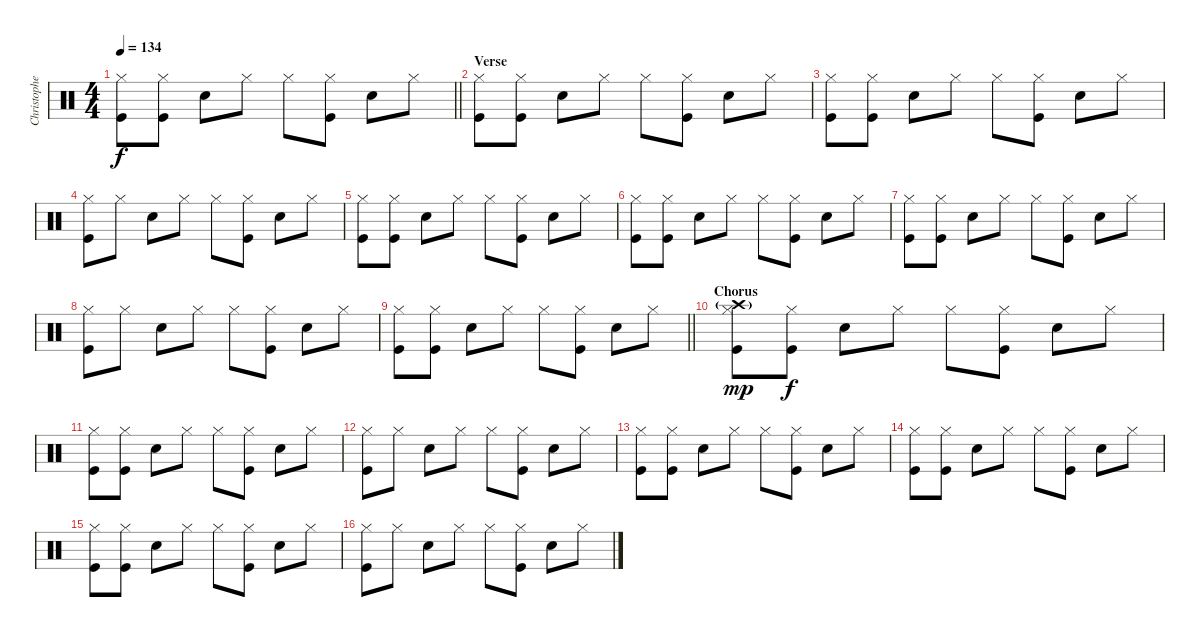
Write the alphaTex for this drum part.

\track ("Christopher - Drums" "Christophe") {instrument percussion}
\staff {score}
\articulation defaults
\ts (4 4)
\tempo 134
\clef neutral
\barLineRight lightlight
\ks c
("Hi-Hat (closed)" "Kick (hit)").8{dy f} ("Hi-Hat (closed)" "Kick (hit)").8 "Snare (hit) 2".8 "Hi-Hat (closed)".8 "Hi-Hat (closed)".8 ("Hi-Hat (closed)" "Kick (hit)").8 "Snare (hit) 2".8 "Hi-Hat (closed)".8 |
\section ("" "Verse")
("Hi-Hat (closed)" "Kick (hit)").8 ("Hi-Hat (closed)" "Kick (hit)").8 "Snare (hit) 2".8 "Hi-Hat (closed)".8 "Hi-Hat (closed)".8 ("Hi-Hat (closed)" "Kick (hit)").8 "Snare (hit) 2".8 "Hi-Hat (closed)".8 |
("Hi-Hat (closed)" "Kick (hit)").8 ("Hi-Hat (closed)" "Kick (hit)").8 "Snare (hit) 2".8 "Hi-Hat (closed)".8 "Hi-Hat (closed)".8 ("Hi-Hat (closed)" "Kick (hit)").8 "Snare (hit) 2".8 "Hi-Hat (closed)".8 |
("Hi-Hat (closed)" "Kick (hit)").8 "Hi-Hat (closed)".8 "Snare (hit) 2".8 "Hi-Hat (closed)".8 "Hi-Hat (closed)".8 ("Hi-Hat (closed)" "Kick (hit)").8 "Snare (hit) 2".8 "Hi-Hat (closed)".8 |
("Hi-Hat (closed)" "Kick (hit)").8 ("Hi-Hat (closed)" "Kick (hit)").8 "Snare (hit) 2".8 "Hi-Hat (closed)".8 "Hi-Hat (closed)".8 ("Hi-Hat (closed)" "Kick (hit)").8 "Snare (hit) 2".8 "Hi-Hat (closed)".8 |
("Hi-Hat (closed)" "Kick (hit)").8 ("Hi-Hat (closed)" "Kick (hit)").8 "Snare (hit) 2".8 "Hi-Hat (closed)".8 "Hi-Hat (closed)".8 ("Hi-Hat (closed)" "Kick (hit)").8 "Snare (hit) 2".8 "Hi-Hat (closed)".8 |
("Hi-Hat (closed)" "Kick (hit)").8 ("Hi-Hat (closed)" "Kick (hit)").8 "Snare (hit) 2".8 "Hi-Hat (closed)".8 "Hi-Hat (closed)".8 ("Hi-Hat (closed)" "Kick (hit)").8 "Snare (hit) 2".8 "Hi-Hat (closed)".8 |
("Hi-Hat (closed)" "Kick (hit)").8 "Hi-Hat (closed)".8 "Snare (hit) 2".8 "Hi-Hat (closed)".8 "Hi-Hat (closed)".8 ("Hi-Hat (closed)" "Kick (hit)").8 "Snare (hit) 2".8 "Hi-Hat (closed)".8 |
\barLineRight lightlight
("Hi-Hat (closed)" "Kick (hit)").8 ("Hi-Hat (closed)" "Kick (hit)").8 "Snare (hit) 2".8 "Hi-Hat (closed)".8 "Hi-Hat (closed)".8 ("Hi-Hat (closed)" "Kick (hit)").8 "Snare (hit) 2".8 "Hi-Hat (closed)".8 |
\section ("" "Chorus")
("Crash high (hit)"{g} "Hi-Hat (closed)" "Kick (hit)").8{dy mp} ("Hi-Hat (closed)" "Kick (hit)").8{dy f} "Snare (hit) 2".8 "Hi-Hat (closed)".8 "Hi-Hat (closed)".8 ("Hi-Hat (closed)" "Kick (hit)").8 "Snare (hit) 2".8 "Hi-Hat (closed)".8 |
("Hi-Hat (closed)" "Kick (hit)").8 ("Hi-Hat (closed)" "Kick (hit)").8 "Snare (hit) 2".8 "Hi-Hat (closed)".8 "Hi-Hat (closed)".8 ("Hi-Hat (closed)" "Kick (hit)").8 "Snare (hit) 2".8 "Hi-Hat (closed)".8 |
("Hi-Hat (closed)" "Kick (hit)").8 "Hi-Hat (closed)".8 "Snare (hit) 2".8 "Hi-Hat (closed)".8 "Hi-Hat (closed)".8 ("Hi-Hat (closed)" "Kick (hit)").8 "Snare (hit) 2".8 "Hi-Hat (closed)".8 |
("Hi-Hat (closed)" "Kick (hit)").8 ("Hi-Hat (closed)" "Kick (hit)").8 "Snare (hit) 2".8 "Hi-Hat (closed)".8 "Hi-Hat (closed)".8 ("Hi-Hat (closed)" "Kick (hit)").8 "Snare (hit) 2".8 "Hi-Hat (closed)".8 |
("Hi-Hat (closed)" "Kick (hit)").8 ("Hi-Hat (closed)" "Kick (hit)").8 "Snare (hit) 2".8 "Hi-Hat (closed)".8 "Hi-Hat (closed)".8 ("Hi-Hat (closed)" "Kick (hit)").8 "Snare (hit) 2".8 "Hi-Hat (closed)".8 |
("Hi-Hat (closed)" "Kick (hit)").8 ("Hi-Hat (closed)" "Kick (hit)").8 "Snare (hit) 2".8 "Hi-Hat (closed)".8 "Hi-Hat (closed)".8 ("Hi-Hat (closed)" "Kick (hit)").8 "Snare (hit) 2".8 "Hi-Hat (closed)".8 |
("Hi-Hat (closed)" "Kick (hit)").8 "Hi-Hat (closed)".8 "Snare (hit) 2".8 "Hi-Hat (closed)".8 "Hi-Hat (closed)".8 ("Hi-Hat (closed)" "Kick (hit)").8 "Snare (hit) 2".8 "Hi-Hat (closed)".8
